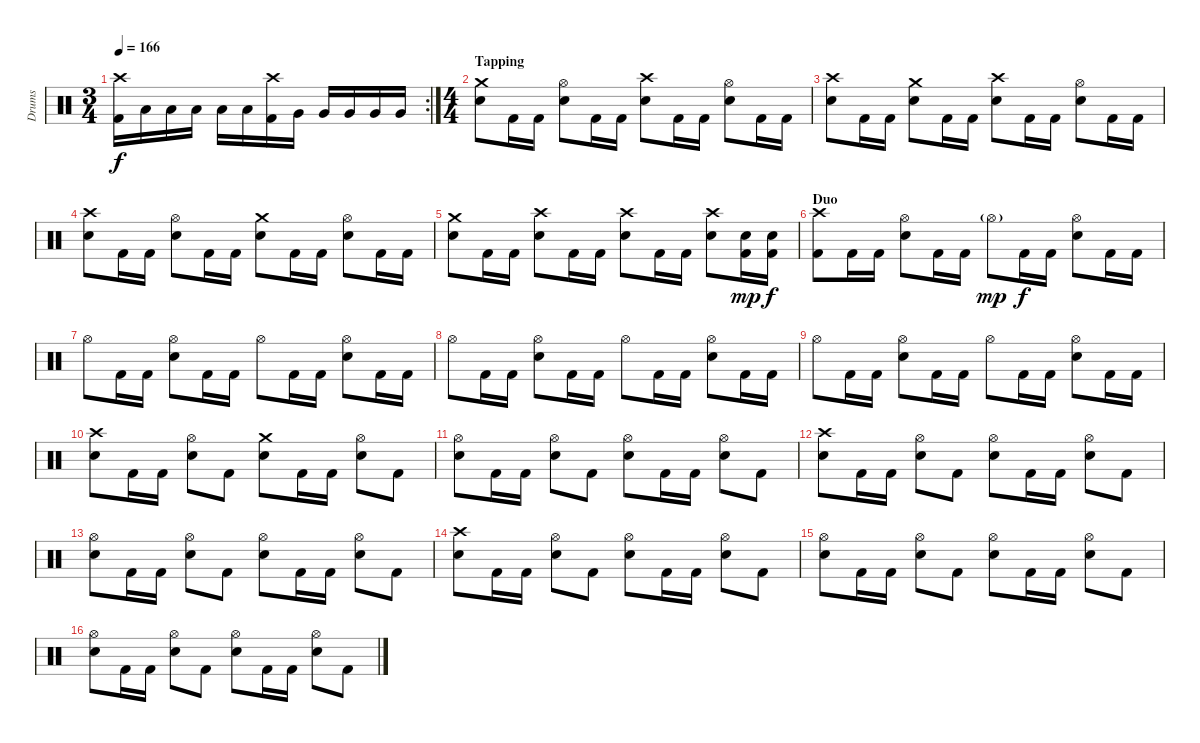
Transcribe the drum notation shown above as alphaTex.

\track ("Drums" "Drums") {instrument percussion}
\staff {score}
\articulation defaults
\rc 2
\ts (3 4)
\tempo 166
\clef neutral
\ks c
("Crash high (hit)" "Kick (hit) 2").16{dy f} "Low Tom (hit)".16 "Low Tom (hit)".16 "Low Tom (hit)".16 "Low Tom (hit)".16 "Low Tom (hit)".16 ("Crash high (hit)" "Kick (hit) 2").16 "Very Low Tom (hit)".16 "Very Low Tom (hit)".16 "Very Low Tom (hit)".16 "Very Low Tom (hit)".16 "Very Low Tom (hit)".16 |
\ts (4 4)
\section ("" "Tapping")
("Crash medium (hit)" "Snare (hit) 2").8 "Kick (hit) 2".16 "Kick (hit) 2".16 ("Hi-Hat (open)" "Snare (hit) 2").8 "Kick (hit) 2".16 "Kick (hit) 2".16 ("Crash high (hit)" "Snare (hit) 2").8 "Kick (hit) 2".16 "Kick (hit) 2".16 ("Hi-Hat (open)" "Snare (hit) 2").8 "Kick (hit) 2".16 "Kick (hit) 2".16 |
("Crash high (hit)" "Snare (hit) 2").8 "Kick (hit) 2".16 "Kick (hit) 2".16 ("Crash medium (hit)" "Snare (hit) 2").8 "Kick (hit) 2".16 "Kick (hit) 2".16 ("Crash high (hit)" "Snare (hit) 2").8 "Kick (hit) 2".16 "Kick (hit) 2".16 ("Hi-Hat (open)" "Snare (hit) 2").8 "Kick (hit) 2".16 "Kick (hit) 2".16 |
("Crash high (hit)" "Snare (hit) 2").8 "Kick (hit) 2".16 "Kick (hit) 2".16 ("Hi-Hat (open)" "Snare (hit) 2").8 "Kick (hit) 2".16 "Kick (hit) 2".16 ("Crash medium (hit)" "Snare (hit) 2").8 "Kick (hit) 2".16 "Kick (hit) 2".16 ("Hi-Hat (open)" "Snare (hit) 2").8 "Kick (hit) 2".16 "Kick (hit) 2".16 |
("Crash medium (hit)" "Snare (hit) 2").8 "Kick (hit) 2".16 "Kick (hit) 2".16 ("Crash high (hit)" "Snare (hit) 2").8 "Kick (hit) 2".16 "Kick (hit) 2".16 ("Crash high (hit)" "Snare (hit) 2").8 "Kick (hit) 2".16 "Kick (hit) 2".16 ("Crash high (hit)" "Snare (hit) 2").8 ("Snare (hit) 2" "Kick (hit) 2").16{dy mp} ("Snare (hit) 2" "Kick (hit) 2").16{dy f} |
\section ("" "Duo")
("Crash high (hit)" "Kick (hit) 2").8 "Kick (hit) 2".16 "Kick (hit) 2".16 ("Hi-Hat (open)" "Snare (hit) 2").8 "Kick (hit) 2".16 "Kick (hit) 2".16 "Hi-Hat (open)"{g}.8{dy mp} "Kick (hit) 2".16{dy f} "Kick (hit) 2".16 ("Hi-Hat (open)" "Snare (hit) 2").8 "Kick (hit) 2".16 "Kick (hit) 2".16 |
"Hi-Hat (open)".8 "Kick (hit) 2".16 "Kick (hit) 2".16 ("Hi-Hat (open)" "Snare (hit) 2").8 "Kick (hit) 2".16 "Kick (hit) 2".16 "Hi-Hat (open)".8 "Kick (hit) 2".16 "Kick (hit) 2".16 ("Hi-Hat (open)" "Snare (hit) 2").8 "Kick (hit) 2".16 "Kick (hit) 2".16 |
"Hi-Hat (open)".8 "Kick (hit) 2".16 "Kick (hit) 2".16 ("Hi-Hat (open)" "Snare (hit) 2").8 "Kick (hit) 2".16 "Kick (hit) 2".16 "Hi-Hat (open)".8 "Kick (hit) 2".16 "Kick (hit) 2".16 ("Hi-Hat (open)" "Snare (hit) 2").8 "Kick (hit) 2".16 "Kick (hit) 2".16 |
"Hi-Hat (open)".8 "Kick (hit) 2".16 "Kick (hit) 2".16 ("Hi-Hat (open)" "Snare (hit) 2").8 "Kick (hit) 2".16 "Kick (hit) 2".16 "Hi-Hat (open)".8 "Kick (hit) 2".16 "Kick (hit) 2".16 ("Hi-Hat (open)" "Snare (hit) 2").8 "Kick (hit) 2".16 "Kick (hit) 2".16 |
("Crash high (hit)" "Snare (hit) 2").8 "Kick (hit) 2".16 "Kick (hit) 2".16 ("Hi-Hat (open)" "Snare (hit) 2").8 "Kick (hit) 2".8 ("Crash medium (hit)" "Snare (hit) 2").8 "Kick (hit) 2".16 "Kick (hit) 2".16 ("Hi-Hat (open)" "Snare (hit) 2").8 "Kick (hit) 2".8 |
("Hi-Hat (open)" "Snare (hit) 2").8 "Kick (hit) 2".16 "Kick (hit) 2".16 ("Hi-Hat (open)" "Snare (hit) 2").8 "Kick (hit) 2".8 ("Hi-Hat (open)" "Snare (hit) 2").8 "Kick (hit) 2".16 "Kick (hit) 2".16 ("Hi-Hat (open)" "Snare (hit) 2").8 "Kick (hit) 2".8 |
("Crash high (hit)" "Snare (hit) 2").8 "Kick (hit) 2".16 "Kick (hit) 2".16 ("Hi-Hat (open)" "Snare (hit) 2").8 "Kick (hit) 2".8 ("Hi-Hat (open)" "Snare (hit) 2").8 "Kick (hit) 2".16 "Kick (hit) 2".16 ("Hi-Hat (open)" "Snare (hit) 2").8 "Kick (hit) 2".8 |
("Hi-Hat (open)" "Snare (hit) 2").8 "Kick (hit) 2".16 "Kick (hit) 2".16 ("Hi-Hat (open)" "Snare (hit) 2").8 "Kick (hit) 2".8 ("Hi-Hat (open)" "Snare (hit) 2").8 "Kick (hit) 2".16 "Kick (hit) 2".16 ("Hi-Hat (open)" "Snare (hit) 2").8 "Kick (hit) 2".8 |
("Crash high (hit)" "Snare (hit) 2").8 "Kick (hit) 2".16 "Kick (hit) 2".16 ("Hi-Hat (open)" "Snare (hit) 2").8 "Kick (hit) 2".8 ("Hi-Hat (open)" "Snare (hit) 2").8 "Kick (hit) 2".16 "Kick (hit) 2".16 ("Hi-Hat (open)" "Snare (hit) 2").8 "Kick (hit) 2".8 |
("Hi-Hat (open)" "Snare (hit) 2").8 "Kick (hit) 2".16 "Kick (hit) 2".16 ("Hi-Hat (open)" "Snare (hit) 2").8 "Kick (hit) 2".8 ("Hi-Hat (open)" "Snare (hit) 2").8 "Kick (hit) 2".16 "Kick (hit) 2".16 ("Hi-Hat (open)" "Snare (hit) 2").8 "Kick (hit) 2".8 |
("Hi-Hat (open)" "Snare (hit) 2").8 "Kick (hit) 2".16 "Kick (hit) 2".16 ("Hi-Hat (open)" "Snare (hit) 2").8 "Kick (hit) 2".8 ("Hi-Hat (open)" "Snare (hit) 2").8 "Kick (hit) 2".16 "Kick (hit) 2".16 ("Hi-Hat (open)" "Snare (hit) 2").8 "Kick (hit) 2".8
